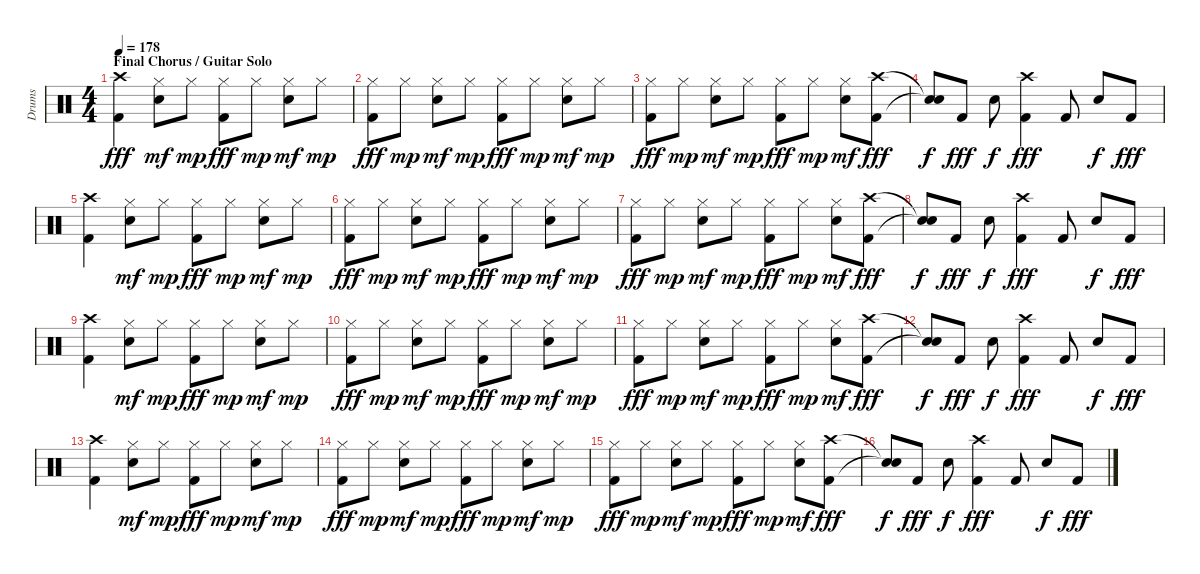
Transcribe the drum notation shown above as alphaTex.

\track ("Drums" "Drums") {instrument percussion}
\staff {score}
\articulation defaults
\ts (4 4)
\section ("" "Final Chorus / Guitar Solo")
\tempo 178
\clef neutral
\ks c
("Crash high (hit)" "Kick (hit) 2").4{dy fff} ("Hi-Hat (closed)" "Electric Snare (hit)").8{dy mf} "Hi-Hat (closed)".8{dy mp} ("Hi-Hat (closed)" "Kick (hit) 2").8{dy fff} "Hi-Hat (closed)".8{dy mp} ("Hi-Hat (closed)" "Electric Snare (hit)").8{dy mf} "Hi-Hat (closed)".8{dy mp} |
("Hi-Hat (closed)" "Kick (hit) 2").8{dy fff} "Hi-Hat (closed)".8{dy mp} ("Hi-Hat (closed)" "Electric Snare (hit)").8{dy mf} "Hi-Hat (closed)".8{dy mp} ("Hi-Hat (closed)" "Kick (hit) 2").8{dy fff} "Hi-Hat (closed)".8{dy mp} ("Hi-Hat (closed)" "Electric Snare (hit)").8{dy mf} "Hi-Hat (closed)".8{dy mp} |
("Hi-Hat (closed)" "Kick (hit) 2").8{dy fff} "Hi-Hat (closed)".8{dy mp} ("Hi-Hat (closed)" "Electric Snare (hit)").8{dy mf} "Hi-Hat (closed)".8{dy mp} ("Hi-Hat (closed)" "Kick (hit) 2").8{dy fff} "Hi-Hat (closed)".8{dy mp} ("Hi-Hat (closed)" "Electric Snare (hit)").8{dy mf} ("Crash high (hit)" "Kick (hit) 2").8{dy fff} |
("Snare (hit)"{t} "Snare (hit)"{t}).8{dy f} "Kick (hit) 2".8{dy fff} "Electric Snare (hit)".8{dy f} ("Crash high (hit)" "Kick (hit) 2").4{dy fff} "Kick (hit) 2".8 "Electric Snare (hit)".8{dy f} "Kick (hit) 2".8{dy fff} |
("Crash high (hit)" "Kick (hit) 2").4 ("Hi-Hat (closed)" "Electric Snare (hit)").8{dy mf} "Hi-Hat (closed)".8{dy mp} ("Hi-Hat (closed)" "Kick (hit) 2").8{dy fff} "Hi-Hat (closed)".8{dy mp} ("Hi-Hat (closed)" "Electric Snare (hit)").8{dy mf} "Hi-Hat (closed)".8{dy mp} |
("Hi-Hat (closed)" "Kick (hit) 2").8{dy fff} "Hi-Hat (closed)".8{dy mp} ("Hi-Hat (closed)" "Electric Snare (hit)").8{dy mf} "Hi-Hat (closed)".8{dy mp} ("Hi-Hat (closed)" "Kick (hit) 2").8{dy fff} "Hi-Hat (closed)".8{dy mp} ("Hi-Hat (closed)" "Electric Snare (hit)").8{dy mf} "Hi-Hat (closed)".8{dy mp} |
("Hi-Hat (closed)" "Kick (hit) 2").8{dy fff} "Hi-Hat (closed)".8{dy mp} ("Hi-Hat (closed)" "Electric Snare (hit)").8{dy mf} "Hi-Hat (closed)".8{dy mp} ("Hi-Hat (closed)" "Kick (hit) 2").8{dy fff} "Hi-Hat (closed)".8{dy mp} ("Hi-Hat (closed)" "Electric Snare (hit)").8{dy mf} ("Crash high (hit)" "Kick (hit) 2").8{dy fff} |
("Snare (hit)"{t} "Snare (hit)"{t}).8{dy f} "Kick (hit) 2".8{dy fff} "Electric Snare (hit)".8{dy f} ("Crash high (hit)" "Kick (hit) 2").4{dy fff} "Kick (hit) 2".8 "Electric Snare (hit)".8{dy f} "Kick (hit) 2".8{dy fff} |
("Crash high (hit)" "Kick (hit) 2").4 ("Hi-Hat (closed)" "Electric Snare (hit)").8{dy mf} "Hi-Hat (closed)".8{dy mp} ("Hi-Hat (closed)" "Kick (hit) 2").8{dy fff} "Hi-Hat (closed)".8{dy mp} ("Hi-Hat (closed)" "Electric Snare (hit)").8{dy mf} "Hi-Hat (closed)".8{dy mp} |
("Hi-Hat (closed)" "Kick (hit) 2").8{dy fff} "Hi-Hat (closed)".8{dy mp} ("Hi-Hat (closed)" "Electric Snare (hit)").8{dy mf} "Hi-Hat (closed)".8{dy mp} ("Hi-Hat (closed)" "Kick (hit) 2").8{dy fff} "Hi-Hat (closed)".8{dy mp} ("Hi-Hat (closed)" "Electric Snare (hit)").8{dy mf} "Hi-Hat (closed)".8{dy mp} |
("Hi-Hat (closed)" "Kick (hit) 2").8{dy fff} "Hi-Hat (closed)".8{dy mp} ("Hi-Hat (closed)" "Electric Snare (hit)").8{dy mf} "Hi-Hat (closed)".8{dy mp} ("Hi-Hat (closed)" "Kick (hit) 2").8{dy fff} "Hi-Hat (closed)".8{dy mp} ("Hi-Hat (closed)" "Electric Snare (hit)").8{dy mf} ("Crash high (hit)" "Kick (hit) 2").8{dy fff} |
("Snare (hit)"{t} "Snare (hit)"{t}).8{dy f} "Kick (hit) 2".8{dy fff} "Electric Snare (hit)".8{dy f} ("Crash high (hit)" "Kick (hit) 2").4{dy fff} "Kick (hit) 2".8 "Electric Snare (hit)".8{dy f} "Kick (hit) 2".8{dy fff} |
("Crash high (hit)" "Kick (hit) 2").4 ("Hi-Hat (closed)" "Electric Snare (hit)").8{dy mf} "Hi-Hat (closed)".8{dy mp} ("Hi-Hat (closed)" "Kick (hit) 2").8{dy fff} "Hi-Hat (closed)".8{dy mp} ("Hi-Hat (closed)" "Electric Snare (hit)").8{dy mf} "Hi-Hat (closed)".8{dy mp} |
("Hi-Hat (closed)" "Kick (hit) 2").8{dy fff} "Hi-Hat (closed)".8{dy mp} ("Hi-Hat (closed)" "Electric Snare (hit)").8{dy mf} "Hi-Hat (closed)".8{dy mp} ("Hi-Hat (closed)" "Kick (hit) 2").8{dy fff} "Hi-Hat (closed)".8{dy mp} ("Hi-Hat (closed)" "Electric Snare (hit)").8{dy mf} "Hi-Hat (closed)".8{dy mp} |
("Hi-Hat (closed)" "Kick (hit) 2").8{dy fff} "Hi-Hat (closed)".8{dy mp} ("Hi-Hat (closed)" "Electric Snare (hit)").8{dy mf} "Hi-Hat (closed)".8{dy mp} ("Hi-Hat (closed)" "Kick (hit) 2").8{dy fff} "Hi-Hat (closed)".8{dy mp} ("Hi-Hat (closed)" "Electric Snare (hit)").8{dy mf} ("Crash high (hit)" "Kick (hit) 2").8{dy fff} |
("Snare (hit)"{t} "Snare (hit)"{t}).8{dy f} "Kick (hit) 2".8{dy fff} "Electric Snare (hit)".8{dy f} ("Crash high (hit)" "Kick (hit) 2").4{dy fff} "Kick (hit) 2".8 "Electric Snare (hit)".8{dy f} "Kick (hit) 2".8{dy fff}
